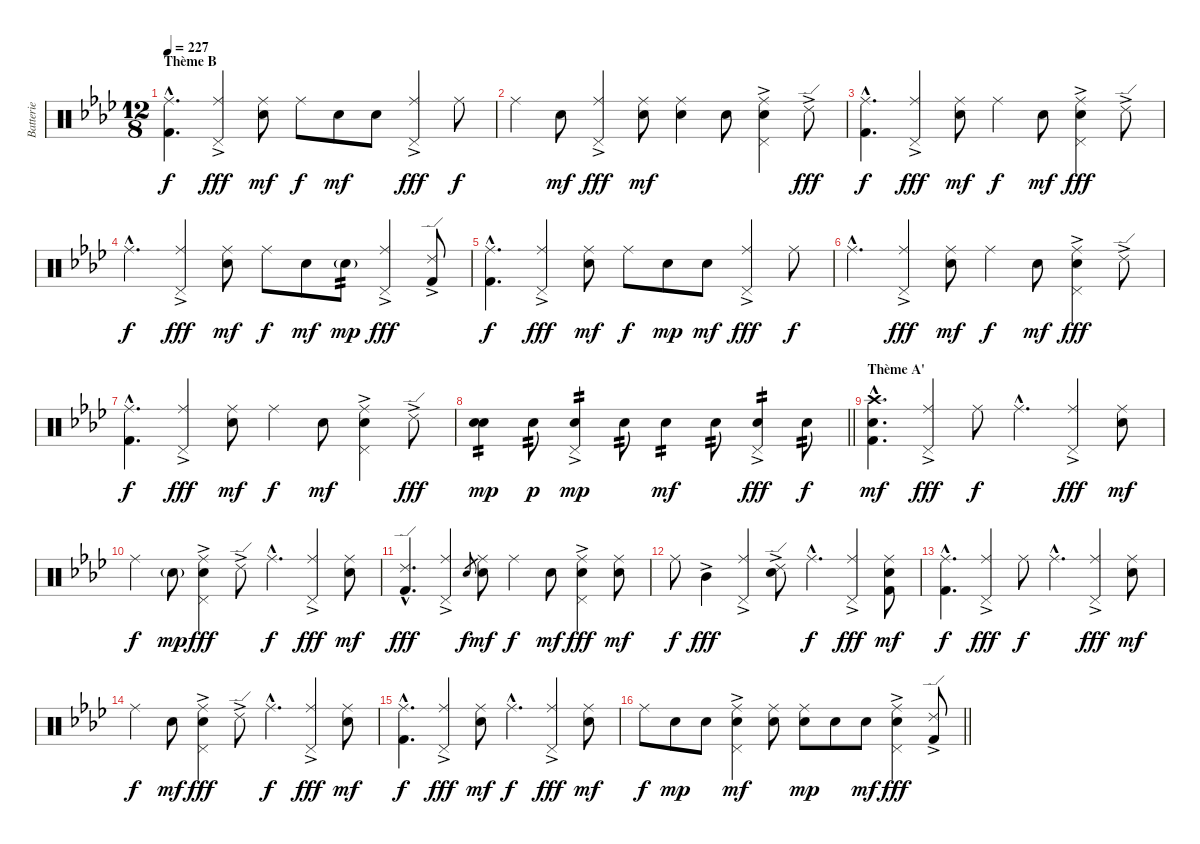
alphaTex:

\track ("Batterie" "Batterie") {instrument percussion}
\staff {score}
\articulation defaults
\ts (12 8)
\section ("" "Thème B")
\tempo 227
\clef neutral
\ks fminor
("Ride (middle)"{hac} "Kick (hit) 2"{hac}).4{d dy f volume 11 balance 8} ("Ride (middle)" "Pedal Hi-Hat (hit)"{ac}).4{dy fff} ("Ride (middle)" "Snare (hit) 2").8{dy mf} "Ride (middle)".8{dy f} "Snare (hit) 2".8{dy mf} "Snare (hit) 2".8 ("Ride (middle)" "Pedal Hi-Hat (hit)"{ac}).4{dy fff} "Ride (middle)".8{dy f} |
"Ride (middle)".4 "Snare (hit) 2".8{dy mf} ("Ride (middle)" "Pedal Hi-Hat (hit)"{ac}).4{dy fff} ("Ride (middle)" "Snare (hit) 2").8{dy mf} ("Ride (middle)" "Snare (hit) 2").4 "Snare (hit) 2".8 ("Ride (middle)" "Pedal Hi-Hat (hit)"{ac} "Snare (hit) 2").4 "Ride (edge) 2"{ac}.8{dy fff} |
("Ride (middle)"{hac} "Kick (hit) 2"{hac}).4{d dy f} ("Ride (middle)" "Pedal Hi-Hat (hit)"{ac}).4{dy fff} ("Ride (middle)" "Snare (hit) 2").8{dy mf} "Ride (middle)".4{dy f} "Snare (hit) 2".8{dy mf} ("Ride (middle)" "Pedal Hi-Hat (hit)"{ac} "Snare (hit) 2").4{dy fff} "Ride (edge) 2"{ac}.8 |
"Ride (middle)"{hac}.4{d dy f} ("Ride (middle)" "Pedal Hi-Hat (hit)"{ac}).4{dy fff} ("Ride (middle)" "Snare (hit) 2").8{dy mf} "Ride (middle)".8{dy f} "Snare (hit) 2".8{dy mf} "Snare (hit) 2"{g}.8{tp 2 dy mp} ("Ride (middle)" "Pedal Hi-Hat (hit)"{ac}).4{dy fff} ("Ride (edge) 2"{ac} "Kick (hit) 2").8 |
("Ride (middle)"{hac} "Kick (hit) 2"{hac}).4{d dy f} ("Ride (middle)" "Pedal Hi-Hat (hit)"{ac}).4{dy fff} ("Ride (middle)" "Snare (hit) 2").8{dy mf} "Ride (middle)".8{dy f} "Snare (hit) 2".8{dy mp} "Snare (hit) 2".8{dy mf} ("Ride (middle)" "Pedal Hi-Hat (hit)"{ac}).4{dy fff} "Ride (middle)".8{dy f} |
"Ride (middle)"{hac}.4{d} ("Ride (middle)" "Pedal Hi-Hat (hit)"{ac}).4{dy fff} ("Ride (middle)" "Snare (hit) 2").8{dy mf} "Ride (middle)".4{dy f} "Snare (hit) 2".8{dy mf} ("Ride (middle)" "Pedal Hi-Hat (hit)"{ac} "Snare (hit) 2").4{dy fff} "Ride (edge) 2"{ac}.8 |
("Ride (middle)"{hac} "Kick (hit) 2"{hac}).4{d dy f} ("Ride (middle)" "Pedal Hi-Hat (hit)"{ac}).4{dy fff} ("Ride (middle)" "Snare (hit) 2").8{dy mf} "Ride (middle)".4{dy f} "Snare (hit) 2".8{dy mf} ("Ride (middle)" "Pedal Hi-Hat (hit)"{ac} "Snare (hit) 2").4 "Ride (edge) 2"{ac}.8{dy fff} |
\barLineRight lightlight
("Snare (hit) 2" "Electric Snare (hit)").4{tp 2 dy mp} "Snare (hit) 2".8{tp 2 dy p} ("Pedal Hi-Hat (hit)"{ac} "Snare (hit) 2").4{tp 2 dy mp} "Snare (hit) 2".8{tp 2} "Snare (hit) 2".4{tp 2 dy mf} "Snare (hit) 2".8{tp 2} ("Pedal Hi-Hat (hit)"{ac} "Snare (hit) 2").4{tp 2 dy fff} "Snare (hit) 2".8{tp 2 dy f} |
\section ("" "Thème A'")
("Crash high (hit)"{hac} "Snare (hit) 2"{hac} "Kick (hit) 2"{hac}).4{d dy mf volume 13 balance 8} ("Ride (middle)" "Pedal Hi-Hat (hit)"{ac}).4{dy fff} "Ride (middle)".8{dy f} "Ride (middle)"{hac}.4{d} ("Ride (middle)" "Pedal Hi-Hat (hit)"{ac}).4{dy fff} ("Ride (middle)" "Snare (hit) 2").8{dy mf} |
"Ride (middle)".4{dy f} "Snare (hit) 2"{g}.8{dy mp} ("Ride (middle)" "Pedal Hi-Hat (hit)"{ac} "Snare (hit) 2").4{dy fff} "Ride (edge) 2"{ac}.8 "Ride (middle)"{hac}.4{d dy f} ("Ride (middle)" "Pedal Hi-Hat (hit)"{ac}).4{dy fff} ("Ride (middle)" "Snare (hit) 2").8{dy mf} |
("Ride (edge) 2"{hac} "Kick (hit) 2"{hac}).4{d dy fff} ("Ride (middle)" "Pedal Hi-Hat (hit)"{ac}).4 "Snare (hit) 2".8{gr dy f} ("Ride (middle)" "Snare (hit) 2").8{dy mf} "Ride (middle)".4{dy f} "Snare (hit) 2".8{dy mf} ("Ride (middle)" "Pedal Hi-Hat (hit)"{ac} "Snare (hit) 2").4{dy fff} ("Ride (middle)" "Snare (hit) 2").8{dy mf} |
"Ride (middle)".8{dy f} "Mid Tom (hit)"{ac}.4{dy fff} ("Ride (middle)" "Pedal Hi-Hat (hit)"{ac}).4 ("Ride (edge) 2"{ac} "Snare (hit) 2").8 "Ride (middle)"{hac}.4{d dy f} ("Ride (middle)" "Pedal Hi-Hat (hit)"{ac}).4{dy fff} ("Ride (middle)" "Snare (hit) 2" "Kick (hit) 2").8{dy mf} |
("Ride (middle)"{hac} "Kick (hit) 2"{hac}).4{d dy f} ("Ride (middle)" "Pedal Hi-Hat (hit)"{ac}).4{dy fff} "Ride (middle)".8{dy f} "Ride (middle)"{hac}.4{d} ("Ride (middle)" "Pedal Hi-Hat (hit)"{ac}).4{dy fff} ("Ride (middle)" "Snare (hit) 2").8{dy mf} |
"Ride (middle)".4{dy f} "Snare (hit) 2".8{dy mf} ("Ride (middle)" "Pedal Hi-Hat (hit)"{ac} "Snare (hit) 2").4{dy fff} "Ride (edge) 2"{ac}.8 "Ride (middle)"{hac}.4{d dy f} ("Ride (middle)" "Pedal Hi-Hat (hit)"{ac}).4{dy fff} ("Ride (middle)" "Snare (hit) 2").8{dy mf} |
("Ride (middle)"{hac} "Kick (hit) 2"{hac}).4{d dy f} ("Ride (middle)" "Pedal Hi-Hat (hit)"{ac}).4{dy fff} ("Ride (middle)" "Snare (hit) 2").8{dy mf} "Ride (middle)"{hac}.4{d dy f} ("Ride (middle)" "Pedal Hi-Hat (hit)"{ac}).4{dy fff} ("Ride (middle)" "Snare (hit) 2").8{dy mf} |
\barLineRight lightlight "Ride (middle)".8{dy f} "Snare (hit) 2".8{dy mp} "Snare (hit) 2".8
("Ride (middle)" "Pedal Hi-Hat (hit)"{ac} "Snare (hit) 2").4{dy mf} ("Ride (middle)" "Snare (hit) 2").8 ("Ride (middle)" "Snare (hit) 2").8{dy mp} "Snare (hit) 2".8 "Snare (hit) 2".8{dy mf} ("Ride (middle)" "Pedal Hi-Hat (hit)"{ac} "Snare (hit) 2").4{dy fff} ("Ride (edge) 2"{ac} "Kick (hit) 2").8
